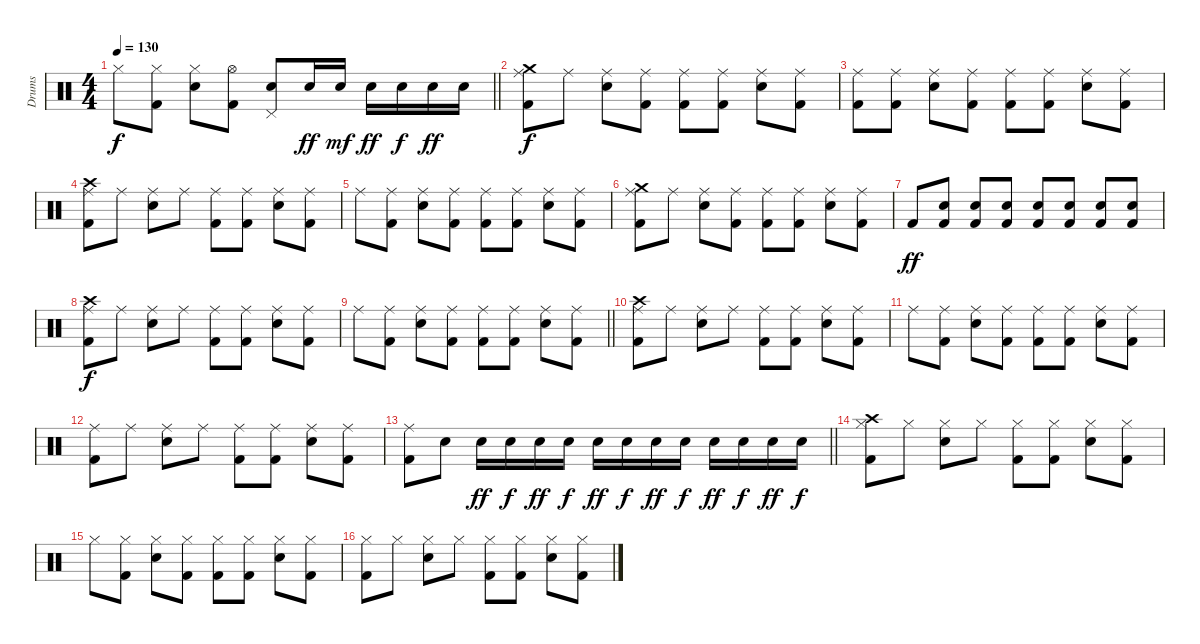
\track ("Drums" "Drums") {instrument percussion}
\staff {score}
\articulation defaults
\ts (4 4)
\tempo 130
\clef neutral
\barLineRight lightlight
\ks c "Hi-Hat (closed)".8{dy f}
("Hi-Hat (closed)" "Kick (hit) 2").8 ("Hi-Hat (closed)" "Electric Snare (hit)").8 ("Hi-Hat (open)" "Kick (hit) 2").8 ("Pedal Hi-Hat (hit)" "Electric Snare (hit)").8 "Electric Snare (hit)".16{dy ff} "Electric Snare (hit)".16{dy mf} "Electric Snare (hit)".16{dy ff} "Electric Snare (hit)".16{dy f} "Electric Snare (hit)".16{dy ff} "Electric Snare (hit)".16 |
("Ride (middle)" "Crash medium (hit)" "Kick (hit) 2").8{dy f} "Ride (middle)".8 ("Ride (middle)" "Electric Snare (hit)").8 ("Ride (middle)" "Kick (hit) 2").8 ("Ride (middle)" "Kick (hit) 2").8 ("Ride (middle)" "Kick (hit) 2").8 ("Ride (middle)" "Electric Snare (hit)").8 ("Ride (middle)" "Kick (hit) 2").8 |
("Ride (middle)" "Kick (hit) 2").8 ("Ride (middle)" "Kick (hit) 2").8 ("Ride (middle)" "Electric Snare (hit)").8 ("Ride (middle)" "Kick (hit) 2").8 ("Ride (middle)" "Kick (hit) 2").8 ("Ride (middle)" "Kick (hit) 2").8 ("Ride (middle)" "Electric Snare (hit)").8 ("Ride (middle)" "Kick (hit) 2").8 |
("Ride (middle)" "Crash high (hit)" "Kick (hit) 2").8 "Ride (middle)".8 ("Ride (middle)" "Electric Snare (hit)").8 "Ride (middle)".8 ("Ride (middle)" "Kick (hit) 2").8 ("Ride (middle)" "Kick (hit) 2").8 ("Ride (middle)" "Electric Snare (hit)").8 ("Ride (middle)" "Kick (hit) 2").8 |
"Ride (middle)".8 ("Ride (middle)" "Kick (hit) 2").8 ("Ride (middle)" "Electric Snare (hit)").8 ("Ride (middle)" "Kick (hit) 2").8 ("Ride (middle)" "Kick (hit) 2").8 ("Ride (middle)" "Kick (hit) 2").8 ("Ride (middle)" "Electric Snare (hit)").8 ("Ride (middle)" "Kick (hit) 2").8 |
("Ride (middle)" "Crash medium (hit)" "Kick (hit) 2").8 "Ride (middle)".8 ("Ride (middle)" "Electric Snare (hit)").8 ("Ride (middle)" "Kick (hit) 2").8 ("Ride (middle)" "Kick (hit) 2").8 ("Ride (middle)" "Kick (hit) 2").8 ("Ride (middle)" "Electric Snare (hit)").8 ("Ride (middle)" "Kick (hit) 2").8 |
"Kick (hit) 2".8{dy ff} ("Electric Snare (hit)" "Kick (hit) 2").8 ("Electric Snare (hit)" "Kick (hit) 2").8 ("Electric Snare (hit)" "Kick (hit) 2").8 ("Electric Snare (hit)" "Kick (hit) 2").8 ("Electric Snare (hit)" "Kick (hit) 2").8 ("Electric Snare (hit)" "Kick (hit) 2").8 ("Electric Snare (hit)" "Kick (hit) 2").8 |
("Ride (middle)" "Crash high (hit)" "Kick (hit) 2").8{dy f} "Ride (middle)".8 ("Ride (middle)" "Electric Snare (hit)").8 "Ride (middle)".8 ("Ride (middle)" "Kick (hit) 2").8 ("Ride (middle)" "Kick (hit) 2").8 ("Ride (middle)" "Electric Snare (hit)").8 ("Ride (middle)" "Kick (hit) 2").8 |
\barLineRight lightlight "Ride (middle)".8
("Ride (middle)" "Kick (hit) 2").8 ("Ride (middle)" "Electric Snare (hit)").8 ("Ride (middle)" "Kick (hit) 2").8 ("Ride (middle)" "Kick (hit) 2").8 ("Ride (middle)" "Kick (hit) 2").8 ("Ride (middle)" "Electric Snare (hit)").8 ("Ride (middle)" "Kick (hit) 2").8 |
("Ride (middle)" "Crash high (hit)" "Kick (hit) 2").8 "Ride (middle)".8 ("Ride (middle)" "Electric Snare (hit)").8 "Ride (middle)".8 ("Ride (middle)" "Kick (hit) 2").8 ("Ride (middle)" "Kick (hit) 2").8 ("Ride (middle)" "Electric Snare (hit)").8 ("Ride (middle)" "Kick (hit) 2").8 |
"Ride (middle)".8 ("Ride (middle)" "Kick (hit) 2").8 ("Ride (middle)" "Electric Snare (hit)").8 ("Ride (middle)" "Kick (hit) 2").8 ("Ride (middle)" "Kick (hit) 2").8 ("Ride (middle)" "Kick (hit) 2").8 ("Ride (middle)" "Electric Snare (hit)").8 ("Ride (middle)" "Kick (hit) 2").8 |
("Ride (middle)" "Kick (hit) 2").8 "Ride (middle)".8 ("Ride (middle)" "Electric Snare (hit)").8 "Ride (middle)".8 ("Ride (middle)" "Kick (hit) 2").8 ("Ride (middle)" "Kick (hit) 2").8 ("Ride (middle)" "Electric Snare (hit)").8 ("Ride (middle)" "Kick (hit) 2").8 |
\barLineRight lightlight
("Ride (middle)" "Kick (hit) 2").8 "Electric Snare (hit)".8 "Electric Snare (hit)".16{dy ff} "Electric Snare (hit)".16{dy f} "Electric Snare (hit)".16{dy ff} "Electric Snare (hit)".16{dy f} "Electric Snare (hit)".16{dy ff} "Electric Snare (hit)".16{dy f} "Electric Snare (hit)".16{dy ff} "Electric Snare (hit)".16{dy f} "Electric Snare (hit)".16{dy ff} "Electric Snare (hit)".16{dy f} "Electric Snare (hit)".16{dy ff} "Electric Snare (hit)".16{dy f} |
("Hi-Hat (closed)" "Crash high (hit)" "Kick (hit) 2").8 "Hi-Hat (closed)".8 ("Hi-Hat (closed)" "Electric Snare (hit)").8 "Hi-Hat (closed)".8 ("Hi-Hat (closed)" "Kick (hit) 2").8 ("Hi-Hat (closed)" "Kick (hit) 2").8 ("Hi-Hat (closed)" "Electric Snare (hit)").8 ("Hi-Hat (closed)" "Kick (hit) 2").8 |
"Hi-Hat (closed)".8 ("Hi-Hat (closed)" "Kick (hit) 2").8 ("Hi-Hat (closed)" "Electric Snare (hit)").8 ("Hi-Hat (closed)" "Kick (hit) 2").8 ("Hi-Hat (closed)" "Kick (hit) 2").8 ("Hi-Hat (closed)" "Kick (hit) 2").8 ("Hi-Hat (closed)" "Electric Snare (hit)").8 ("Hi-Hat (closed)" "Kick (hit) 2").8 |
("Hi-Hat (closed)" "Kick (hit) 2").8 "Hi-Hat (closed)".8 ("Hi-Hat (closed)" "Electric Snare (hit)").8 "Hi-Hat (closed)".8 ("Hi-Hat (closed)" "Kick (hit) 2").8 ("Hi-Hat (closed)" "Kick (hit) 2").8 ("Hi-Hat (closed)" "Electric Snare (hit)").8 ("Hi-Hat (closed)" "Kick (hit) 2").8
